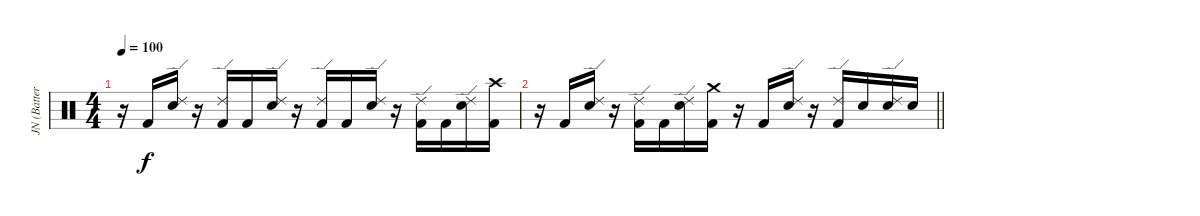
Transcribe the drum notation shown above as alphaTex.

\track ("JN (Batterie)" "JN (Batter") {instrument percussion}
\staff {score}
\articulation defaults
\ts (4 4)
\tempo 100
\clef neutral
\ks c
r.16{dy f} "Kick (hit) 2".16 ("Ride (edge) 2" "Electric Snare (hit)").16 r.16 ("Ride (edge) 2" "Kick (hit) 2").16 "Kick (hit) 2".16 ("Ride (edge) 2" "Electric Snare (hit)").16 r.16 ("Ride (edge) 2" "Kick (hit) 2").16 "Kick (hit) 2".16 ("Ride (edge) 2" "Electric Snare (hit)").16 r.16 ("Ride (edge) 2" "Kick (hit) 2").16 "Kick (hit) 2".16 ("Ride (edge) 2" "Electric Snare (hit)").16 ("Crash high (hit)" "Kick (hit) 2").16 |
\barLineRight lightlight
r.16 "Kick (hit) 2".16 ("Ride (edge) 2" "Electric Snare (hit)").16 r.16 ("Ride (edge) 2" "Kick (hit) 2").16 "Kick (hit) 2".16 ("Ride (edge) 2" "Electric Snare (hit)").16 ("Crash medium (hit)" "Kick (hit) 2").16 r.16 "Kick (hit) 2".16 ("Ride (edge) 2" "Electric Snare (hit)").16 r.16 ("Ride (edge) 2" "Kick (hit) 2").16 "Electric Snare (hit)".16 ("Ride (edge) 2" "Electric Snare (hit)").16 "Electric Snare (hit)".16
